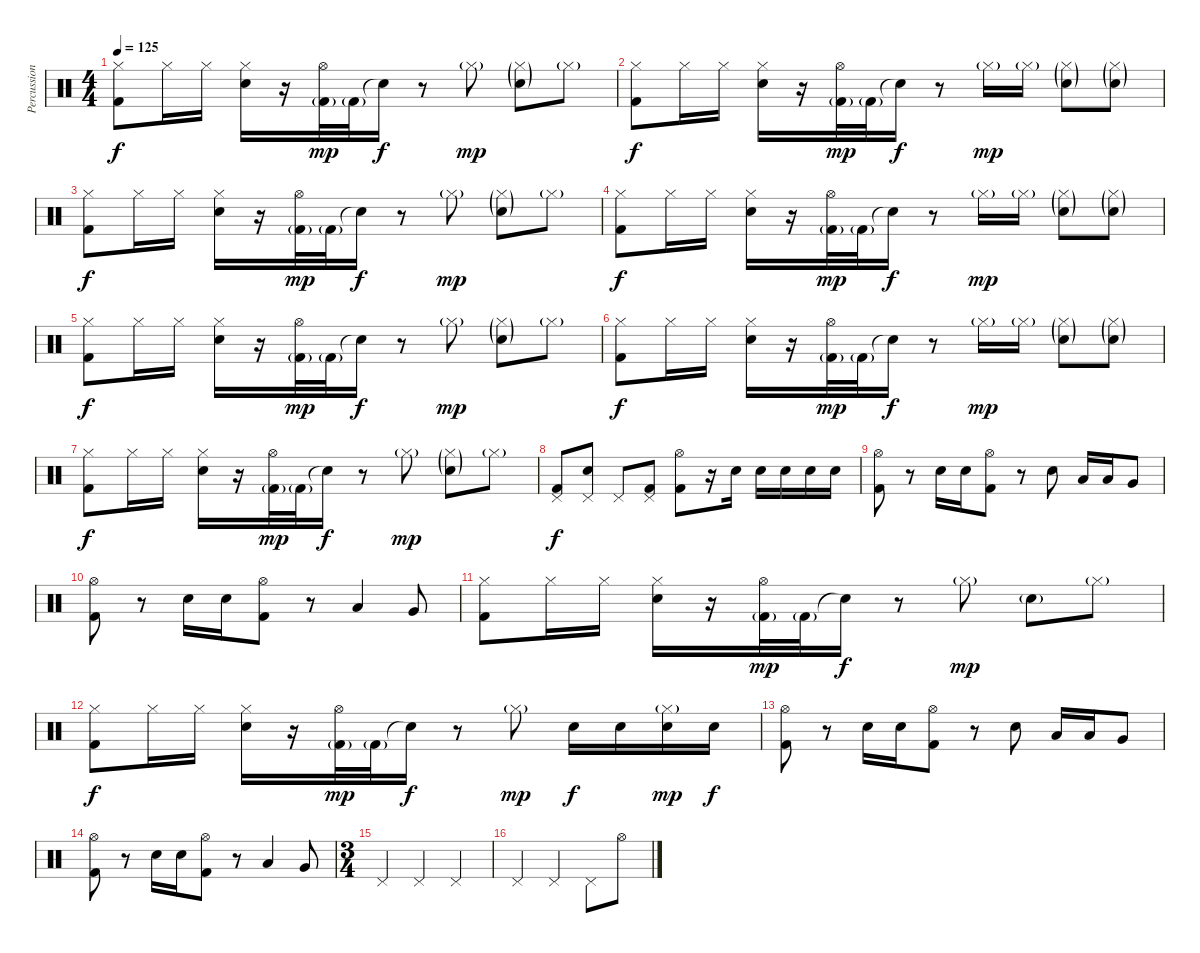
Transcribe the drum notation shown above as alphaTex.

\track ("Percussion" "Percussion") {instrument percussion}
\staff {score}
\articulation defaults
\ts (4 4)
\tempo 125
\clef neutral
\ks c
("Hi-Hat (closed)" "Kick (hit) 2").8{dy f} "Hi-Hat (closed)".16 "Hi-Hat (closed)".16 ("Hi-Hat (closed)" "Snare (hit) 2").16 r.16 ("Hi-Hat (open)" "Kick (hit) 2"{g}).32{dy mp} "Kick (hit) 2"{g}.32 "Snare (hit)"{t}.16{dy f} r.8 "Hi-Hat (closed)"{g}.8{dy mp} ("Hi-Hat (closed)"{g} "Snare (hit) 2"{g}).8 "Hi-Hat (closed)"{g}.8 |
("Hi-Hat (closed)" "Kick (hit) 2").8{dy f} "Hi-Hat (closed)".16 "Hi-Hat (closed)".16 ("Hi-Hat (closed)" "Snare (hit) 2").16 r.16 ("Hi-Hat (open)" "Kick (hit) 2"{g}).32{dy mp} "Kick (hit) 2"{g}.32 "Snare (hit)"{t}.16{dy f} r.8 "Hi-Hat (closed)"{g}.16{dy mp} "Hi-Hat (closed)"{g}.16 ("Hi-Hat (closed)"{g} "Snare (hit) 2"{g}).8 ("Hi-Hat (closed)"{g} "Snare (hit) 2"{g}).8 |
("Hi-Hat (closed)" "Kick (hit) 2").8{dy f} "Hi-Hat (closed)".16 "Hi-Hat (closed)".16 ("Hi-Hat (closed)" "Snare (hit) 2").16 r.16 ("Hi-Hat (open)" "Kick (hit) 2"{g}).32{dy mp} "Kick (hit) 2"{g}.32 "Snare (hit)"{t}.16{dy f} r.8 "Hi-Hat (closed)"{g}.8{dy mp} ("Hi-Hat (closed)"{g} "Snare (hit) 2"{g}).8 "Hi-Hat (closed)"{g}.8 |
("Hi-Hat (closed)" "Kick (hit) 2").8{dy f} "Hi-Hat (closed)".16 "Hi-Hat (closed)".16 ("Hi-Hat (closed)" "Snare (hit) 2").16 r.16 ("Hi-Hat (open)" "Kick (hit) 2"{g}).32{dy mp} "Kick (hit) 2"{g}.32 "Snare (hit)"{t}.16{dy f} r.8 "Hi-Hat (closed)"{g}.16{dy mp} "Hi-Hat (closed)"{g}.16 ("Hi-Hat (closed)"{g} "Snare (hit) 2"{g}).8 ("Hi-Hat (closed)"{g} "Snare (hit) 2"{g}).8 |
("Hi-Hat (closed)" "Kick (hit) 2").8{dy f} "Hi-Hat (closed)".16 "Hi-Hat (closed)".16 ("Hi-Hat (closed)" "Snare (hit) 2").16 r.16 ("Hi-Hat (open)" "Kick (hit) 2"{g}).32{dy mp} "Kick (hit) 2"{g}.32 "Snare (hit)"{t}.16{dy f} r.8 "Hi-Hat (closed)"{g}.8{dy mp} ("Hi-Hat (closed)"{g} "Snare (hit) 2"{g}).8 "Hi-Hat (closed)"{g}.8 |
("Hi-Hat (closed)" "Kick (hit) 2").8{dy f} "Hi-Hat (closed)".16 "Hi-Hat (closed)".16 ("Hi-Hat (closed)" "Snare (hit) 2").16 r.16 ("Hi-Hat (open)" "Kick (hit) 2"{g}).32{dy mp} "Kick (hit) 2"{g}.32 "Snare (hit)"{t}.16{dy f} r.8 "Hi-Hat (closed)"{g}.16{dy mp} "Hi-Hat (closed)"{g}.16 ("Hi-Hat (closed)"{g} "Snare (hit) 2"{g}).8 ("Hi-Hat (closed)"{g} "Snare (hit) 2"{g}).8 |
("Hi-Hat (closed)" "Kick (hit) 2").8{dy f} "Hi-Hat (closed)".16 "Hi-Hat (closed)".16 ("Hi-Hat (closed)" "Snare (hit) 2").16 r.16 ("Hi-Hat (open)" "Kick (hit) 2"{g}).32{dy mp} "Kick (hit) 2"{g}.32 "Snare (hit)"{t}.16{dy f} r.8 "Hi-Hat (closed)"{g}.8{dy mp} ("Hi-Hat (closed)"{g} "Snare (hit) 2"{g}).8 "Hi-Hat (closed)"{g}.8 |
("Pedal Hi-Hat (hit)" "Kick (hit) 2").8{dy f} ("Pedal Hi-Hat (hit)" "Snare (hit) 2").8 "Pedal Hi-Hat (hit)".8 ("Pedal Hi-Hat (hit)" "Kick (hit) 2").8 ("Hi-Hat (open)" "Kick (hit) 2").8 r.16 "Snare (hit) 2".16 "Snare (hit) 2".16 "Snare (hit) 2".16 "Snare (hit) 2".16 "Snare (hit) 2".16 |
("Hi-Hat (open)" "Kick (hit) 2").8 r.8 "Snare (hit) 2".16 "Snare (hit) 2".16 ("Hi-Hat (open)" "Kick (hit) 2").8 r.8 "Snare (hit) 2".8 "Low Tom (hit)".16 "Low Tom (hit)".16 "Very Low Tom (hit)".8 |
("Hi-Hat (open)" "Kick (hit) 2").8 r.8 "Snare (hit) 2".16 "Snare (hit) 2".16 ("Hi-Hat (open)" "Kick (hit) 2").8 r.8 "Low Tom (hit)".4 "Very Low Tom (hit)".8 |
("Hi-Hat (closed)" "Kick (hit) 2").8 "Hi-Hat (closed)".16 "Hi-Hat (closed)".16 ("Hi-Hat (closed)" "Snare (hit) 2").16 r.16 ("Hi-Hat (open)" "Kick (hit) 2"{g}).32{dy mp} "Kick (hit) 2"{g}.32 "Snare (hit)"{t}.16{dy f} r.8 "Hi-Hat (closed)"{g}.8{dy mp} "Snare (hit) 2"{g}.8 "Hi-Hat (closed)"{g}.8 |
("Hi-Hat (closed)" "Kick (hit) 2").8{dy f} "Hi-Hat (closed)".16 "Hi-Hat (closed)".16 ("Hi-Hat (closed)" "Snare (hit) 2").16 r.16 ("Hi-Hat (open)" "Kick (hit) 2"{g}).32{dy mp} "Kick (hit) 2"{g}.32 "Snare (hit)"{t}.16{dy f} r.8 "Hi-Hat (closed)"{g}.8{dy mp} "Snare (hit) 2".16{dy f} "Snare (hit) 2".16 ("Hi-Hat (closed)"{g} "Snare (hit) 2").16{dy mp} "Snare (hit) 2".16{dy f} |
("Hi-Hat (open)" "Kick (hit) 2").8 r.8 "Snare (hit) 2".16 "Snare (hit) 2".16 ("Hi-Hat (open)" "Kick (hit) 2").8 r.8 "Snare (hit) 2".8 "Low Tom (hit)".16 "Low Tom (hit)".16 "Very Low Tom (hit)".8 |
("Hi-Hat (open)" "Kick (hit) 2").8 r.8 "Snare (hit) 2".16 "Snare (hit) 2".16 ("Hi-Hat (open)" "Kick (hit) 2").8 r.8 "Low Tom (hit)".4 "Very Low Tom (hit)".8 |
\ts (3 4)
"Pedal Hi-Hat (hit)".4 "Pedal Hi-Hat (hit)".4 "Pedal Hi-Hat (hit)".4 |
"Pedal Hi-Hat (hit)".4 "Pedal Hi-Hat (hit)".4 "Pedal Hi-Hat (hit)".8 "Hi-Hat (open)".8
